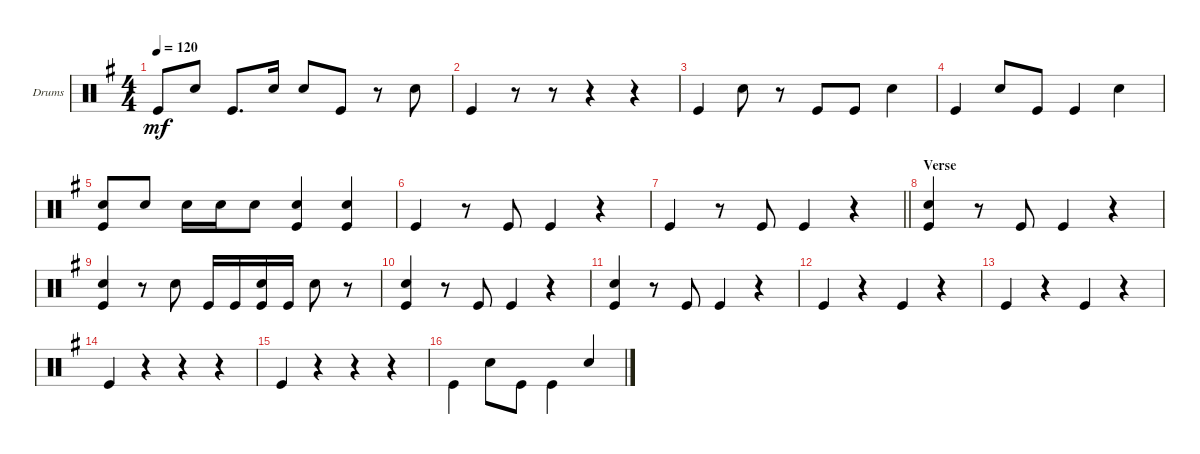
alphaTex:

\defaultSystemsLayout 4
\bracketExtendMode groupsimilarinstruments
\useSystemSignSeparator
\multiTrackTrackNamePolicy allsystems
\firstSystemTrackNameOrientation horizontal
\otherSystemsTrackNameOrientation horizontal
\track ("Drumkit" "Drums") {multiBarRest instrument percussion}
\staff {score}
\articulation defaults
\ts (4 4)
\scale
0.329825
\tempo 120
\accidentals auto
\clef neutral
\ottava regular
\simile none
\ks g "Kick (hit)".8{dy mf} "Snare (hit) 2".8 "Kick (hit)".8{d} "Snare (hit) 2".16 "Snare (hit) 2".8 "Kick (hit)".8
r.8 "Snare (hit) 2".8 |
"Kick (hit)".4 r.8 r.8 r.4 r.4 |
"Kick (hit)".4 "Snare (hit) 2".8 r.8 "Kick (hit)".8 "Kick (hit)".8 "Snare (hit) 2".4 |
"Kick (hit)".4 "Snare (hit) 2".8 "Kick (hit)".8 "Kick (hit)".4 "Snare (hit) 2".4 |
("Kick (hit)" "Snare (hit) 2").8 "Snare (hit) 2".8 "Snare (hit) 2".16 "Snare (hit) 2".16 "Snare (hit) 2".8 ("Kick (hit)" "Snare (hit) 2").4 ("Kick (hit)" "Snare (hit) 2").4 |
"Kick (hit)".4 r.8 "Kick (hit)".8 "Kick (hit)".4 r.4 |
\barLineRight lightlight "Kick (hit)".4
r.8 "Kick (hit)".8 "Kick (hit)".4 r.4 |
\section ("" "Verse")
("Kick (hit)" "Snare (hit) 2").4 r.8 "Kick (hit)".8 "Kick (hit)".4 r.4 |
("Kick (hit)" "Snare (hit) 2").4 r.8 "Snare (hit) 2".8 "Kick (hit)".16 "Kick (hit)".16 ("Kick (hit)" "Snare (hit) 2").16 "Kick (hit)".16 "Snare (hit) 2".8 r.8 |
("Kick (hit)" "Snare (hit) 2").4 r.8 "Kick (hit)".8 "Kick (hit)".4 r.4 |
("Kick (hit)" "Snare (hit) 2").4 r.8 "Kick (hit)".8 "Kick (hit)".4 r.4 |
"Kick (hit)".4 r.4 "Kick (hit)".4 r.4 |
"Kick (hit)".4 r.4 "Kick (hit)".4 r.4 |
"Kick (hit)".4 r.4 r.4 r.4 |
"Kick (hit)".4 r.4 r.4 r.4 |
"Kick (hit)".4{beam invert} "Snare (hit) 2".8{beam invert} "Kick (hit)".8 "Kick (hit)".4{beam invert} "Snare (hit) 2".4{beam invert}
